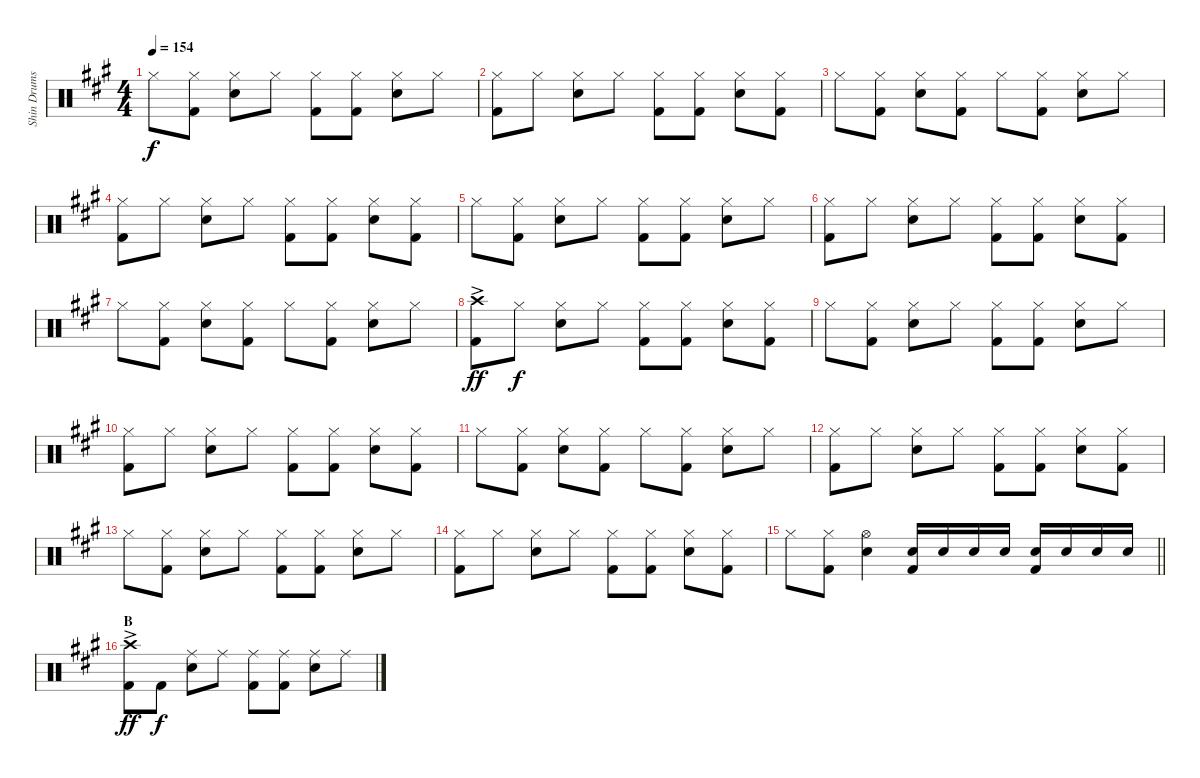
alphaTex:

\track ("Shin Drums" "Shin Drums") {instrument percussion}
\staff {score}
\articulation defaults
\ts (4 4)
\tempo 154
\clef neutral
\ks a "Hi-Hat (closed)".8{dy f}
("Hi-Hat (closed)" "Kick (hit) 2").8 ("Hi-Hat (closed)" "Snare (hit) 2").8 "Hi-Hat (closed)".8 ("Hi-Hat (closed)" "Kick (hit) 2").8 ("Hi-Hat (closed)" "Kick (hit) 2").8 ("Hi-Hat (closed)" "Snare (hit) 2").8 "Hi-Hat (closed)".8 |
("Hi-Hat (closed)" "Kick (hit) 2").8 "Hi-Hat (closed)".8 ("Hi-Hat (closed)" "Snare (hit) 2").8 "Hi-Hat (closed)".8 ("Hi-Hat (closed)" "Kick (hit) 2").8 ("Hi-Hat (closed)" "Kick (hit) 2").8 ("Hi-Hat (closed)" "Snare (hit) 2").8 ("Hi-Hat (closed)" "Kick (hit) 2").8 |
"Hi-Hat (closed)".8 ("Hi-Hat (closed)" "Kick (hit) 2").8 ("Hi-Hat (closed)" "Snare (hit) 2").8 ("Hi-Hat (closed)" "Kick (hit) 2").8 "Hi-Hat (closed)".8 ("Hi-Hat (closed)" "Kick (hit) 2").8 ("Hi-Hat (closed)" "Snare (hit) 2").8 "Hi-Hat (closed)".8 |
("Hi-Hat (closed)" "Kick (hit) 2").8 "Hi-Hat (closed)".8 ("Hi-Hat (closed)" "Snare (hit) 2").8 "Hi-Hat (closed)".8 ("Hi-Hat (closed)" "Kick (hit) 2").8 ("Hi-Hat (closed)" "Kick (hit) 2").8 ("Hi-Hat (closed)" "Snare (hit) 2").8 ("Hi-Hat (closed)" "Kick (hit) 2").8 |
"Hi-Hat (closed)".8 ("Hi-Hat (closed)" "Kick (hit) 2").8 ("Hi-Hat (closed)" "Snare (hit) 2").8 "Hi-Hat (closed)".8 ("Hi-Hat (closed)" "Kick (hit) 2").8 ("Hi-Hat (closed)" "Kick (hit) 2").8 ("Hi-Hat (closed)" "Snare (hit) 2").8 "Hi-Hat (closed)".8 |
("Hi-Hat (closed)" "Kick (hit) 2").8 "Hi-Hat (closed)".8 ("Hi-Hat (closed)" "Snare (hit) 2").8 "Hi-Hat (closed)".8 ("Hi-Hat (closed)" "Kick (hit) 2").8 ("Hi-Hat (closed)" "Kick (hit) 2").8 ("Hi-Hat (closed)" "Snare (hit) 2").8 ("Hi-Hat (closed)" "Kick (hit) 2").8 |
"Hi-Hat (closed)".8 ("Hi-Hat (closed)" "Kick (hit) 2").8 ("Hi-Hat (closed)" "Snare (hit) 2").8 ("Hi-Hat (closed)" "Kick (hit) 2").8 "Hi-Hat (closed)".8 ("Hi-Hat (closed)" "Kick (hit) 2").8 ("Hi-Hat (closed)" "Snare (hit) 2").8 "Hi-Hat (closed)".8 |
("Crash high (hit)"{ac} "Kick (hit) 2").8{dy ff} "Hi-Hat (closed)".8{dy f} ("Hi-Hat (closed)" "Snare (hit) 2").8 "Hi-Hat (closed)".8 ("Hi-Hat (closed)" "Kick (hit) 2").8 ("Hi-Hat (closed)" "Kick (hit) 2").8 ("Hi-Hat (closed)" "Snare (hit) 2").8 ("Hi-Hat (closed)" "Kick (hit) 2").8 |
"Hi-Hat (closed)".8 ("Hi-Hat (closed)" "Kick (hit) 2").8 ("Hi-Hat (closed)" "Snare (hit) 2").8 "Hi-Hat (closed)".8 ("Hi-Hat (closed)" "Kick (hit) 2").8 ("Hi-Hat (closed)" "Kick (hit) 2").8 ("Hi-Hat (closed)" "Snare (hit) 2").8 "Hi-Hat (closed)".8 |
("Hi-Hat (closed)" "Kick (hit) 2").8 "Hi-Hat (closed)".8 ("Hi-Hat (closed)" "Snare (hit) 2").8 "Hi-Hat (closed)".8 ("Hi-Hat (closed)" "Kick (hit) 2").8 ("Hi-Hat (closed)" "Kick (hit) 2").8 ("Hi-Hat (closed)" "Snare (hit) 2").8 ("Hi-Hat (closed)" "Kick (hit) 2").8 |
"Hi-Hat (closed)".8 ("Hi-Hat (closed)" "Kick (hit) 2").8 ("Hi-Hat (closed)" "Snare (hit) 2").8 ("Hi-Hat (closed)" "Kick (hit) 2").8 "Hi-Hat (closed)".8 ("Hi-Hat (closed)" "Kick (hit) 2").8 ("Hi-Hat (closed)" "Snare (hit) 2").8 "Hi-Hat (closed)".8 |
("Hi-Hat (closed)" "Kick (hit) 2").8 "Hi-Hat (closed)".8 ("Hi-Hat (closed)" "Snare (hit) 2").8 "Hi-Hat (closed)".8 ("Hi-Hat (closed)" "Kick (hit) 2").8 ("Hi-Hat (closed)" "Kick (hit) 2").8 ("Hi-Hat (closed)" "Snare (hit) 2").8 ("Hi-Hat (closed)" "Kick (hit) 2").8 |
"Hi-Hat (closed)".8 ("Hi-Hat (closed)" "Kick (hit) 2").8 ("Hi-Hat (closed)" "Snare (hit) 2").8 "Hi-Hat (closed)".8 ("Hi-Hat (closed)" "Kick (hit) 2").8 ("Hi-Hat (closed)" "Kick (hit) 2").8 ("Hi-Hat (closed)" "Snare (hit) 2").8 "Hi-Hat (closed)".8 |
("Hi-Hat (closed)" "Kick (hit) 2").8 "Hi-Hat (closed)".8 ("Hi-Hat (closed)" "Snare (hit) 2").8 "Hi-Hat (closed)".8 ("Hi-Hat (closed)" "Kick (hit) 2").8 ("Hi-Hat (closed)" "Kick (hit) 2").8 ("Hi-Hat (closed)" "Snare (hit) 2").8 ("Hi-Hat (closed)" "Kick (hit) 2").8 |
\barLineRight lightlight "Hi-Hat (closed)".8
("Hi-Hat (closed)" "Kick (hit) 2").8 ("Hi-Hat (open)" "Snare (hit) 2").4 ("Snare (hit) 2" "Kick (hit) 2").16 "Snare (hit) 2".16 "Snare (hit) 2".16 "Snare (hit) 2".16 ("Snare (hit) 2" "Kick (hit) 2").16 "Snare (hit) 2".16 "Snare (hit) 2".16 "Snare (hit) 2".16 |
\section ("" "B")
("Crash high (hit)"{ac} "Kick (hit) 2").8{dy ff} "Kick (hit) 2".8{dy f} ("Ride (middle)" "Snare (hit) 2").8 "Ride (middle)".8 ("Ride (middle)" "Kick (hit) 2").8 ("Ride (middle)" "Kick (hit) 2").8 ("Ride (middle)" "Snare (hit) 2").8 "Ride (middle)".8
